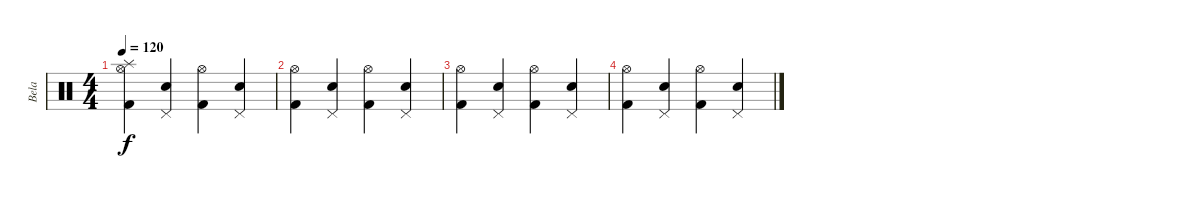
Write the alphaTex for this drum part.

\track ("Bela" "Bela") {instrument percussion}
\staff {score}
\articulation defaults
\ts (4 4)
\tempo 120
\clef neutral
\ks c
("Hi-Hat (open)" "Splash (hit)" "Kick (hit) 2").4{dy f} ("Pedal Hi-Hat (hit)" "Electric Snare (hit)").4 ("Hi-Hat (open)" "Kick (hit) 2").4 ("Pedal Hi-Hat (hit)" "Electric Snare (hit)").4 |
("Hi-Hat (open)" "Kick (hit) 2").4 ("Pedal Hi-Hat (hit)" "Electric Snare (hit)").4 ("Hi-Hat (open)" "Kick (hit) 2").4 ("Pedal Hi-Hat (hit)" "Electric Snare (hit)").4 |
("Hi-Hat (open)" "Kick (hit) 2").4 ("Pedal Hi-Hat (hit)" "Electric Snare (hit)").4 ("Hi-Hat (open)" "Kick (hit) 2").4 ("Pedal Hi-Hat (hit)" "Electric Snare (hit)").4 |
("Hi-Hat (open)" "Kick (hit) 2").4 ("Pedal Hi-Hat (hit)" "Electric Snare (hit)").4 ("Hi-Hat (open)" "Kick (hit) 2").4 ("Pedal Hi-Hat (hit)" "Electric Snare (hit)").4
